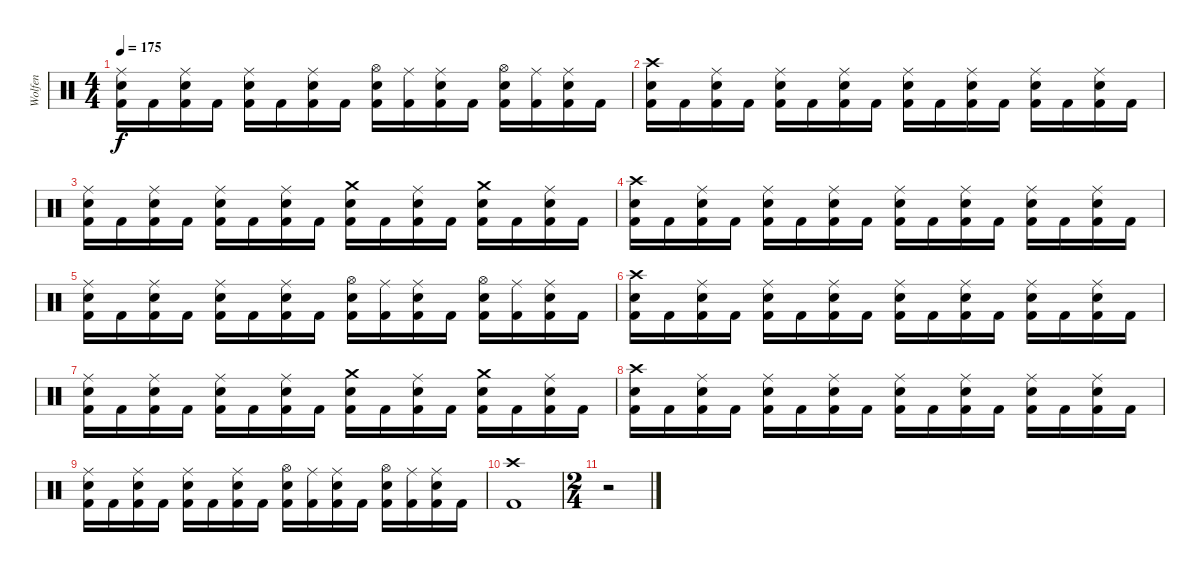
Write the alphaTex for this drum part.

\track ("Wolfen" "Wolfen") {instrument percussion}
\staff {score}
\articulation defaults
\ts (4 4)
\tempo 175
\clef neutral
\ks c
("Ride (middle)" "Electric Snare (hit)" "Kick (hit) 2").16{dy f} "Kick (hit) 2".16 ("Ride (middle)" "Electric Snare (hit)" "Kick (hit) 2").16 "Kick (hit) 2".16 ("Ride (middle)" "Electric Snare (hit)" "Kick (hit) 2").16 "Kick (hit) 2".16 ("Ride (middle)" "Electric Snare (hit)" "Kick (hit) 2").16 "Kick (hit) 2".16 ("Hi-Hat (open)" "Electric Snare (hit)" "Kick (hit) 2").16 ("Ride (middle)" "Kick (hit) 2").16 ("Ride (middle)" "Electric Snare (hit)" "Kick (hit) 2").16 "Kick (hit) 2".16 ("Hi-Hat (open)" "Electric Snare (hit)" "Kick (hit) 2").16 ("Ride (middle)" "Kick (hit) 2").16 ("Ride (middle)" "Electric Snare (hit)" "Kick (hit) 2").16 "Kick (hit) 2".16 |
("Crash high (hit)" "Electric Snare (hit)" "Kick (hit) 2").16 "Kick (hit) 2".16 ("Ride (middle)" "Electric Snare (hit)" "Kick (hit) 2").16 "Kick (hit) 2".16 ("Ride (middle)" "Electric Snare (hit)" "Kick (hit) 2").16 "Kick (hit) 2".16 ("Ride (middle)" "Electric Snare (hit)" "Kick (hit) 2").16 "Kick (hit) 2".16 ("Ride (middle)" "Electric Snare (hit)" "Kick (hit) 2").16 "Kick (hit) 2".16 ("Ride (middle)" "Electric Snare (hit)" "Kick (hit) 2").16 "Kick (hit) 2".16 ("Ride (middle)" "Electric Snare (hit)" "Kick (hit) 2").16 "Kick (hit) 2".16 ("Ride (middle)" "Electric Snare (hit)" "Kick (hit) 2").16 "Kick (hit) 2".16 |
("Ride (middle)" "Electric Snare (hit)" "Kick (hit) 2").16 "Kick (hit) 2".16 ("Ride (middle)" "Electric Snare (hit)" "Kick (hit) 2").16 "Kick (hit) 2".16 ("Ride (middle)" "Electric Snare (hit)" "Kick (hit) 2").16 "Kick (hit) 2".16 ("Ride (middle)" "Electric Snare (hit)" "Kick (hit) 2").16 "Kick (hit) 2".16 ("Crash medium (hit)" "Electric Snare (hit)" "Kick (hit) 2").16 "Kick (hit) 2".16 ("Ride (middle)" "Electric Snare (hit)" "Kick (hit) 2").16 "Kick (hit) 2".16 ("Crash medium (hit)" "Electric Snare (hit)" "Kick (hit) 2").16 "Kick (hit) 2".16 ("Ride (middle)" "Electric Snare (hit)" "Kick (hit) 2").16 "Kick (hit) 2".16 |
("Crash high (hit)" "Electric Snare (hit)" "Kick (hit) 2").16 "Kick (hit) 2".16 ("Ride (middle)" "Electric Snare (hit)" "Kick (hit) 2").16 "Kick (hit) 2".16 ("Ride (middle)" "Electric Snare (hit)" "Kick (hit) 2").16 "Kick (hit) 2".16 ("Ride (middle)" "Electric Snare (hit)" "Kick (hit) 2").16 "Kick (hit) 2".16 ("Ride (middle)" "Electric Snare (hit)" "Kick (hit) 2").16 "Kick (hit) 2".16 ("Ride (middle)" "Electric Snare (hit)" "Kick (hit) 2").16 "Kick (hit) 2".16 ("Ride (middle)" "Electric Snare (hit)" "Kick (hit) 2").16 "Kick (hit) 2".16 ("Ride (middle)" "Electric Snare (hit)" "Kick (hit) 2").16 "Kick (hit) 2".16 |
("Ride (middle)" "Electric Snare (hit)" "Kick (hit) 2").16 "Kick (hit) 2".16 ("Ride (middle)" "Electric Snare (hit)" "Kick (hit) 2").16 "Kick (hit) 2".16 ("Ride (middle)" "Electric Snare (hit)" "Kick (hit) 2").16 "Kick (hit) 2".16 ("Ride (middle)" "Electric Snare (hit)" "Kick (hit) 2").16 "Kick (hit) 2".16 ("Hi-Hat (open)" "Electric Snare (hit)" "Kick (hit) 2").16 ("Ride (middle)" "Kick (hit) 2").16 ("Ride (middle)" "Electric Snare (hit)" "Kick (hit) 2").16 "Kick (hit) 2".16 ("Hi-Hat (open)" "Electric Snare (hit)" "Kick (hit) 2").16 ("Ride (middle)" "Kick (hit) 2").16 ("Ride (middle)" "Electric Snare (hit)" "Kick (hit) 2").16 "Kick (hit) 2".16 |
("Crash high (hit)" "Electric Snare (hit)" "Kick (hit) 2").16 "Kick (hit) 2".16 ("Ride (middle)" "Electric Snare (hit)" "Kick (hit) 2").16 "Kick (hit) 2".16 ("Ride (middle)" "Electric Snare (hit)" "Kick (hit) 2").16 "Kick (hit) 2".16 ("Ride (middle)" "Electric Snare (hit)" "Kick (hit) 2").16 "Kick (hit) 2".16 ("Ride (middle)" "Electric Snare (hit)" "Kick (hit) 2").16 "Kick (hit) 2".16 ("Ride (middle)" "Electric Snare (hit)" "Kick (hit) 2").16 "Kick (hit) 2".16 ("Ride (middle)" "Electric Snare (hit)" "Kick (hit) 2").16 "Kick (hit) 2".16 ("Ride (middle)" "Electric Snare (hit)" "Kick (hit) 2").16 "Kick (hit) 2".16 |
("Ride (middle)" "Electric Snare (hit)" "Kick (hit) 2").16 "Kick (hit) 2".16 ("Ride (middle)" "Electric Snare (hit)" "Kick (hit) 2").16 "Kick (hit) 2".16 ("Ride (middle)" "Electric Snare (hit)" "Kick (hit) 2").16 "Kick (hit) 2".16 ("Ride (middle)" "Electric Snare (hit)" "Kick (hit) 2").16 "Kick (hit) 2".16 ("Crash medium (hit)" "Electric Snare (hit)" "Kick (hit) 2").16 "Kick (hit) 2".16 ("Ride (middle)" "Electric Snare (hit)" "Kick (hit) 2").16 "Kick (hit) 2".16 ("Crash medium (hit)" "Electric Snare (hit)" "Kick (hit) 2").16 "Kick (hit) 2".16 ("Ride (middle)" "Electric Snare (hit)" "Kick (hit) 2").16 "Kick (hit) 2".16 |
("Crash high (hit)" "Electric Snare (hit)" "Kick (hit) 2").16 "Kick (hit) 2".16 ("Ride (middle)" "Electric Snare (hit)" "Kick (hit) 2").16 "Kick (hit) 2".16 ("Ride (middle)" "Electric Snare (hit)" "Kick (hit) 2").16 "Kick (hit) 2".16 ("Ride (middle)" "Electric Snare (hit)" "Kick (hit) 2").16 "Kick (hit) 2".16 ("Ride (middle)" "Electric Snare (hit)" "Kick (hit) 2").16 "Kick (hit) 2".16 ("Ride (middle)" "Electric Snare (hit)" "Kick (hit) 2").16 "Kick (hit) 2".16 ("Ride (middle)" "Electric Snare (hit)" "Kick (hit) 2").16 "Kick (hit) 2".16 ("Ride (middle)" "Electric Snare (hit)" "Kick (hit) 2").16 "Kick (hit) 2".16 |
("Ride (middle)" "Electric Snare (hit)" "Kick (hit) 2").16 "Kick (hit) 2".16 ("Ride (middle)" "Electric Snare (hit)" "Kick (hit) 2").16 "Kick (hit) 2".16 ("Ride (middle)" "Electric Snare (hit)" "Kick (hit) 2").16 "Kick (hit) 2".16 ("Ride (middle)" "Electric Snare (hit)" "Kick (hit) 2").16 "Kick (hit) 2".16 ("Hi-Hat (open)" "Electric Snare (hit)" "Kick (hit) 2").16 ("Ride (middle)" "Kick (hit) 2").16 ("Ride (middle)" "Electric Snare (hit)" "Kick (hit) 2").16 "Kick (hit) 2".16 ("Hi-Hat (open)" "Electric Snare (hit)" "Kick (hit) 2").16 ("Ride (middle)" "Kick (hit) 2").16 ("Ride (middle)" "Electric Snare (hit)" "Kick (hit) 2").16 "Kick (hit) 2".16 |
("Crash high (hit)" "Kick (hit) 2").1 |
\ts (2 4)
r.2
